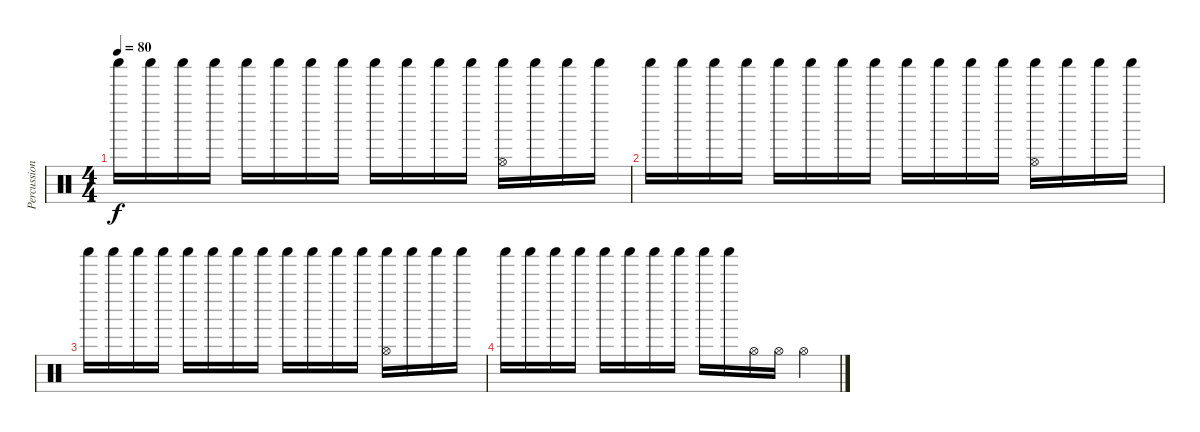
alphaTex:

\track ("Percussion" "Percussion") {instrument percussion bank 10}
\staff {score}
\articulation defaults
\ts (4 4)
\tempo 80
\clef neutral
\ks c "Shaker (hit)".16{dy f} "Shaker (hit)".16 "Shaker (hit)".16 "Shaker (hit)".16 "Shaker (hit)".16 "Shaker (hit)".16 "Shaker (hit)".16 "Shaker (hit)".16 "Shaker (hit)".16 "Shaker (hit)".16 "Shaker (hit)".16 "Shaker (hit)".16
("Hi-Hat (open)" "Shaker (hit)").16 "Shaker (hit)".16 "Shaker (hit)".16 "Shaker (hit)".16 |
"Shaker (hit)".16 "Shaker (hit)".16 "Shaker (hit)".16 "Shaker (hit)".16 "Shaker (hit)".16 "Shaker (hit)".16 "Shaker (hit)".16 "Shaker (hit)".16 "Shaker (hit)".16 "Shaker (hit)".16 "Shaker (hit)".16 "Shaker (hit)".16 ("Hi-Hat (open)" "Shaker (hit)").16 "Shaker (hit)".16 "Shaker (hit)".16 "Shaker (hit)".16 |
"Shaker (hit)".16 "Shaker (hit)".16 "Shaker (hit)".16 "Shaker (hit)".16 "Shaker (hit)".16 "Shaker (hit)".16 "Shaker (hit)".16 "Shaker (hit)".16 "Shaker (hit)".16 "Shaker (hit)".16 "Shaker (hit)".16 "Shaker (hit)".16 ("Hi-Hat (open)" "Shaker (hit)").16 "Shaker (hit)".16 "Shaker (hit)".16 "Shaker (hit)".16 |
"Shaker (hit)".16 "Shaker (hit)".16 "Shaker (hit)".16 "Shaker (hit)".16 "Shaker (hit)".16 "Shaker (hit)".16 "Shaker (hit)".16 "Shaker (hit)".16 "Shaker (hit)".16 "Shaker (hit)".16 "Hi-Hat (open)".16 "Hi-Hat (open)".16 "Hi-Hat (open)".4
